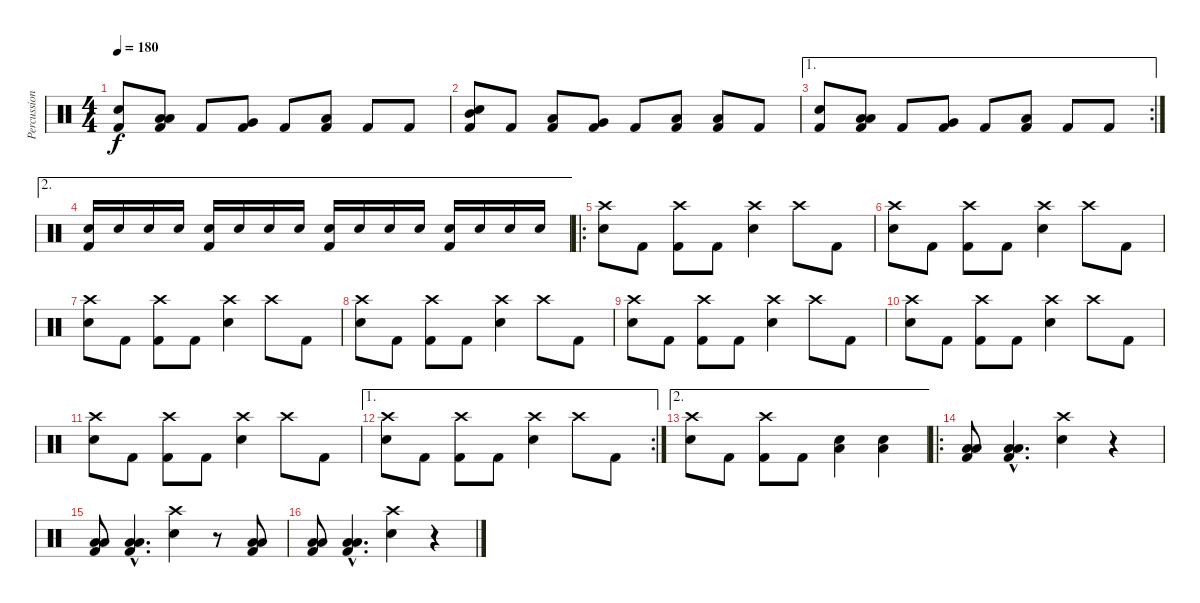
\track ("Percussions" "Percussion") {instrument percussion}
\staff {score}
\articulation defaults
\ts (4 4)
\tempo 180
\clef neutral
\ks c
("Snare (hit) 2" "Kick (hit) 2").8{dy f} ("Low Tom (hit)" "Low Tom (hit)" "Kick (hit) 2").8 "Kick (hit) 2".8 ("Very Low Tom (hit)" "Kick (hit) 2").8 "Kick (hit) 2".8 ("Low Floor Tom (hit)" "Kick (hit) 2").8 "Kick (hit) 2".8 "Kick (hit) 2".8 |
("Mid Tom (hit)" "Snare (hit) 2" "Kick (hit) 2").8 "Kick (hit) 2".8 ("Low Floor Tom (hit)" "Kick (hit) 2").8 ("Very Low Tom (hit)" "Kick (hit) 2").8 "Kick (hit) 2".8 ("Low Tom (hit)" "Kick (hit) 2").8 ("Low Tom (hit)" "Kick (hit) 2").8 "Kick (hit) 2".8 |
\ae 1
\rc 2
("Snare (hit) 2" "Kick (hit) 2").8 ("Low Tom (hit)" "Low Tom (hit)" "Kick (hit) 2").8 "Kick (hit) 2".8 ("Very Low Tom (hit)" "Kick (hit) 2").8 "Kick (hit) 2".8 ("Low Floor Tom (hit)" "Kick (hit) 2").8 "Kick (hit) 2".8 "Kick (hit) 2".8 |
\ae 2
("Snare (hit) 2" "Kick (hit) 2").16 "Snare (hit) 2".16 "Snare (hit) 2".16 "Snare (hit) 2".16 ("Snare (hit) 2" "Kick (hit) 2").16 "Snare (hit) 2".16 "Snare (hit) 2".16 "Snare (hit) 2".16 ("Snare (hit) 2" "Kick (hit) 2").16 "Snare (hit) 2".16 "Snare (hit) 2".16 "Snare (hit) 2".16 ("Snare (hit) 2" "Kick (hit) 2").16 "Snare (hit) 2".16 "Snare (hit) 2".16 "Snare (hit) 2".16 |
\ro
("Crash high (hit)" "Snare (hit) 2").8 "Kick (hit) 2".8 ("Crash high (hit)" "Kick (hit) 2").8 "Kick (hit) 2".8 ("Crash high (hit)" "Snare (hit) 2").4 "Crash high (hit)".8 "Kick (hit) 2".8 |
("Crash high (hit)" "Snare (hit) 2").8 "Kick (hit) 2".8 ("Crash high (hit)" "Kick (hit) 2").8 "Kick (hit) 2".8 ("Crash high (hit)" "Snare (hit) 2").4 "Crash high (hit)".8 "Kick (hit) 2".8 |
("Crash high (hit)" "Snare (hit) 2").8 "Kick (hit) 2".8 ("Crash high (hit)" "Kick (hit) 2").8 "Kick (hit) 2".8 ("Crash high (hit)" "Snare (hit) 2").4 "Crash high (hit)".8 "Kick (hit) 2".8 |
("Crash high (hit)" "Snare (hit) 2").8 "Kick (hit) 2".8 ("Crash high (hit)" "Kick (hit) 2").8 "Kick (hit) 2".8 ("Crash high (hit)" "Snare (hit) 2").4 "Crash high (hit)".8 "Kick (hit) 2".8 |
("Crash high (hit)" "Snare (hit) 2").8 "Kick (hit) 2".8 ("Crash high (hit)" "Kick (hit) 2").8 "Kick (hit) 2".8 ("Crash high (hit)" "Snare (hit) 2").4 "Crash high (hit)".8 "Kick (hit) 2".8 |
("Crash high (hit)" "Snare (hit) 2").8 "Kick (hit) 2".8 ("Crash high (hit)" "Kick (hit) 2").8 "Kick (hit) 2".8 ("Crash high (hit)" "Snare (hit) 2").4 "Crash high (hit)".8 "Kick (hit) 2".8 |
("Crash high (hit)" "Snare (hit) 2").8 "Kick (hit) 2".8 ("Crash high (hit)" "Kick (hit) 2").8 "Kick (hit) 2".8 ("Crash high (hit)" "Snare (hit) 2").4 "Crash high (hit)".8 "Kick (hit) 2".8 |
\ae 1
\rc 2
("Crash high (hit)" "Snare (hit) 2").8 "Kick (hit) 2".8 ("Crash high (hit)" "Kick (hit) 2").8 "Kick (hit) 2".8 ("Crash high (hit)" "Snare (hit) 2").4 "Crash high (hit)".8 "Kick (hit) 2".8 |
\ae 2
("Crash high (hit)" "Snare (hit) 2").8 "Kick (hit) 2".8 ("Crash high (hit)" "Kick (hit) 2").8 "Kick (hit) 2".8 ("Low Floor Tom (hit)" "Snare (hit) 2").4 ("Low Floor Tom (hit)" "Snare (hit) 2").4 |
\ro
("Low Floor Tom (hit)" "Low Floor Tom (hit)" "Kick (hit) 2").8 ("Low Floor Tom (hit)"{hac} "Low Floor Tom (hit)"{hac} "Kick (hit) 2"{hac}).4{d} ("Crash high (hit)" "Snare (hit) 2").4 r.4 |
("Low Floor Tom (hit)" "Low Floor Tom (hit)" "Kick (hit) 2").8 ("Low Floor Tom (hit)"{hac} "Low Floor Tom (hit)"{hac} "Kick (hit) 2"{hac}).4{d} ("Crash high (hit)" "Snare (hit) 2").4 r.8 ("Low Floor Tom (hit)" "Low Floor Tom (hit)" "Kick (hit) 2").8 |
("Low Floor Tom (hit)" "Low Floor Tom (hit)" "Kick (hit) 2").8 ("Low Floor Tom (hit)"{hac} "Low Floor Tom (hit)"{hac} "Kick (hit) 2"{hac}).4{d} ("Crash high (hit)" "Snare (hit) 2").4 r.4
